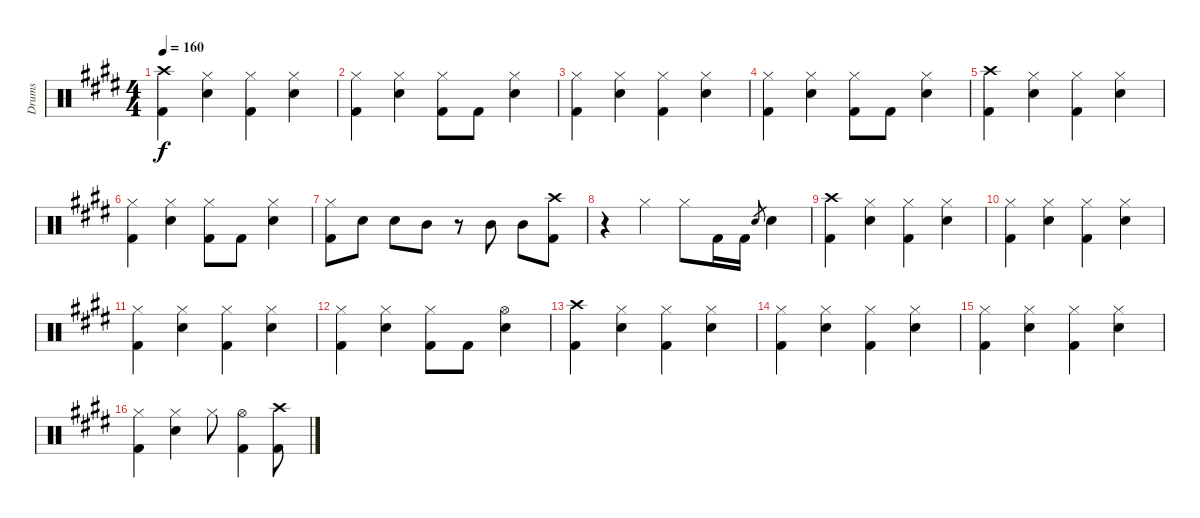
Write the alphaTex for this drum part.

\track ("Drums" "Drums") {instrument percussion}
\staff {score}
\articulation defaults
\ts (4 4)
\tempo 160
\clef neutral
\ks e
("Crash high (hit)" "Kick (hit) 2").4{dy f} ("Hi-Hat (closed)" "Electric Snare (hit)").4 ("Hi-Hat (closed)" "Kick (hit) 2").4 ("Hi-Hat (closed)" "Electric Snare (hit)").4 |
("Hi-Hat (closed)" "Kick (hit) 2").4 ("Hi-Hat (closed)" "Electric Snare (hit)").4 ("Hi-Hat (closed)" "Kick (hit) 2").8 "Kick (hit) 2".8 ("Hi-Hat (closed)" "Electric Snare (hit)").4 |
("Hi-Hat (closed)" "Kick (hit) 2").4 ("Hi-Hat (closed)" "Electric Snare (hit)").4 ("Hi-Hat (closed)" "Kick (hit) 2").4 ("Hi-Hat (closed)" "Electric Snare (hit)").4 |
("Hi-Hat (closed)" "Kick (hit) 2").4 ("Hi-Hat (closed)" "Electric Snare (hit)").4 ("Hi-Hat (closed)" "Kick (hit) 2").8 "Kick (hit) 2".8 ("Hi-Hat (closed)" "Electric Snare (hit)").4 |
("Crash high (hit)" "Kick (hit) 2").4 ("Hi-Hat (closed)" "Electric Snare (hit)").4 ("Hi-Hat (closed)" "Kick (hit) 2").4 ("Hi-Hat (closed)" "Electric Snare (hit)").4 |
("Hi-Hat (closed)" "Kick (hit) 2").4 ("Hi-Hat (closed)" "Electric Snare (hit)").4 ("Hi-Hat (closed)" "Kick (hit) 2").8 "Kick (hit) 2".8 ("Hi-Hat (closed)" "Electric Snare (hit)").4 |
("Hi-Hat (closed)" "Kick (hit) 2").8 "Electric Snare (hit)".8 "Electric Snare (hit)".8 "Mid Tom (hit)".8 r.8 "Mid Tom (hit)".8 "Mid Tom (hit)".8 ("Crash high (hit)" "Kick (hit) 2").8 |
r.4 "Hi-Hat (closed)".4 "Hi-Hat (closed)".8 "Kick (hit) 2".16 "Kick (hit) 2".16 "Electric Snare (hit)".8{gr} "Electric Snare (hit)".4 |
("Crash high (hit)" "Kick (hit) 2").4 ("Hi-Hat (closed)" "Electric Snare (hit)").4 ("Hi-Hat (closed)" "Kick (hit) 2").4 ("Hi-Hat (closed)" "Electric Snare (hit)").4 |
("Hi-Hat (closed)" "Kick (hit) 2").4 ("Hi-Hat (closed)" "Electric Snare (hit)").4 ("Hi-Hat (closed)" "Kick (hit) 2").4 ("Hi-Hat (closed)" "Electric Snare (hit)").4 |
("Hi-Hat (closed)" "Kick (hit) 2").4 ("Hi-Hat (closed)" "Electric Snare (hit)").4 ("Hi-Hat (closed)" "Kick (hit) 2").4 ("Hi-Hat (closed)" "Electric Snare (hit)").4 |
("Hi-Hat (closed)" "Kick (hit) 2").4 ("Hi-Hat (closed)" "Electric Snare (hit)").4 ("Hi-Hat (closed)" "Kick (hit) 2").8 "Kick (hit) 2".8 ("Hi-Hat (open)" "Electric Snare (hit)").4 |
("Crash high (hit)" "Kick (hit) 2").4 ("Hi-Hat (closed)" "Electric Snare (hit)").4 ("Hi-Hat (closed)" "Kick (hit) 2").4 ("Hi-Hat (closed)" "Electric Snare (hit)").4 |
("Hi-Hat (closed)" "Kick (hit) 2").4 ("Hi-Hat (closed)" "Electric Snare (hit)").4 ("Hi-Hat (closed)" "Kick (hit) 2").4 ("Hi-Hat (closed)" "Electric Snare (hit)").4 |
("Hi-Hat (closed)" "Kick (hit) 2").4 ("Hi-Hat (closed)" "Electric Snare (hit)").4 ("Hi-Hat (closed)" "Kick (hit) 2").4 ("Hi-Hat (closed)" "Electric Snare (hit)").4 |
("Hi-Hat (closed)" "Kick (hit) 2").4 ("Hi-Hat (closed)" "Electric Snare (hit)").4 "Hi-Hat (closed)".8 ("Hi-Hat (open)" "Kick (hit) 2").4 ("Crash high (hit)" "Kick (hit) 2").8
